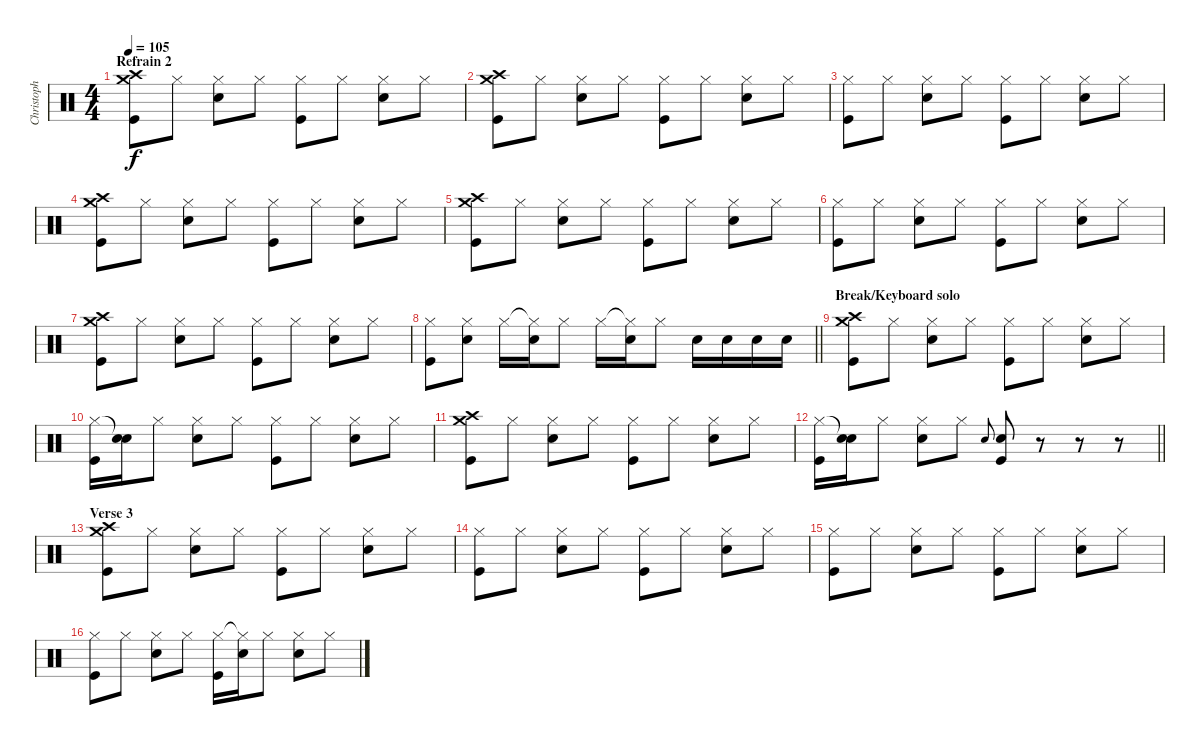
\track ("Christoph Schneider" "Christoph ") {instrument percussion}
\staff {score}
\articulation defaults
\ts (4 4)
\section ("" "Refrain 2")
\tempo 105
\clef neutral
\ks c
("Crash medium (hit)" "Crash high (hit)" "Kick (hit)").8{dy f} "Hi-Hat (closed)".8 ("Hi-Hat (closed)" "Snare (hit) 2").8 "Hi-Hat (closed)".8 ("Hi-Hat (closed)" "Kick (hit)").8 "Hi-Hat (closed)".8 ("Hi-Hat (closed)" "Snare (hit) 2").8 "Hi-Hat (closed)".8 |
("Crash medium (hit)" "Crash high (hit)" "Kick (hit)").8 "Hi-Hat (closed)".8 ("Hi-Hat (closed)" "Snare (hit) 2").8 "Hi-Hat (closed)".8 ("Hi-Hat (closed)" "Kick (hit)").8 "Hi-Hat (closed)".8 ("Hi-Hat (closed)" "Snare (hit) 2").8 "Hi-Hat (closed)".8 |
("Hi-Hat (closed)" "Kick (hit)").8 "Hi-Hat (closed)".8 ("Hi-Hat (closed)" "Snare (hit) 2").8 "Hi-Hat (closed)".8 ("Hi-Hat (closed)" "Kick (hit)").8 "Hi-Hat (closed)".8 ("Hi-Hat (closed)" "Snare (hit) 2").8 "Hi-Hat (closed)".8 |
("Crash medium (hit)" "Crash high (hit)" "Kick (hit)").8 "Hi-Hat (closed)".8 ("Hi-Hat (closed)" "Snare (hit) 2").8 "Hi-Hat (closed)".8 ("Hi-Hat (closed)" "Kick (hit)").8 "Hi-Hat (closed)".8 ("Hi-Hat (closed)" "Snare (hit) 2").8 "Hi-Hat (closed)".8 |
("Crash medium (hit)" "Crash high (hit)" "Kick (hit)").8 "Hi-Hat (closed)".8 ("Hi-Hat (closed)" "Snare (hit) 2").8 "Hi-Hat (closed)".8 ("Hi-Hat (closed)" "Kick (hit)").8 "Hi-Hat (closed)".8 ("Hi-Hat (closed)" "Snare (hit) 2").8 "Hi-Hat (closed)".8 |
("Hi-Hat (closed)" "Kick (hit)").8 "Hi-Hat (closed)".8 ("Hi-Hat (closed)" "Snare (hit) 2").8 "Hi-Hat (closed)".8 ("Hi-Hat (closed)" "Kick (hit)").8 "Hi-Hat (closed)".8 ("Hi-Hat (closed)" "Snare (hit) 2").8 "Hi-Hat (closed)".8 |
("Crash medium (hit)" "Crash high (hit)" "Kick (hit)").8 "Hi-Hat (closed)".8 ("Hi-Hat (closed)" "Snare (hit) 2").8 "Hi-Hat (closed)".8 ("Hi-Hat (closed)" "Kick (hit)").8 "Hi-Hat (closed)".8 ("Hi-Hat (closed)" "Snare (hit) 2").8 "Hi-Hat (closed)".8 |
\barLineRight lightlight
("Hi-Hat (closed)" "Kick (hit)").8 ("Hi-Hat (closed)" "Snare (hit) 2").8 "Hi-Hat (closed)".16 ("Hi-Hat (closed)"{t} "Snare (hit) 2").16 "Hi-Hat (closed)".8 "Hi-Hat (closed)".16 ("Hi-Hat (closed)"{t} "Snare (hit) 2").16 "Hi-Hat (closed)".8 "Snare (hit) 2".16 "Snare (hit) 2".16 "Snare (hit) 2".16 "Snare (hit) 2".16 |
\section ("" "Break/Keyboard solo")
("Crash medium (hit)" "Crash high (hit)" "Kick (hit)").8 "Hi-Hat (closed)".8 ("Hi-Hat (closed)" "Snare (hit) 2").8 "Hi-Hat (closed)".8 ("Hi-Hat (closed)" "Kick (hit)").8 "Hi-Hat (closed)".8 ("Hi-Hat (closed)" "Snare (hit) 2").8 "Hi-Hat (closed)".8 |
("Hi-Hat (closed)" "Kick (hit)").16 ("Snare (hit)"{t} "Snare (hit) 2").16 "Hi-Hat (closed)".8 ("Hi-Hat (closed)" "Snare (hit) 2").8 "Hi-Hat (closed)".8 ("Hi-Hat (closed)" "Kick (hit)").8 "Hi-Hat (closed)".8 ("Hi-Hat (closed)" "Snare (hit) 2").8 "Hi-Hat (closed)".8 |
("Crash medium (hit)" "Crash high (hit)" "Kick (hit)").8 "Hi-Hat (closed)".8 ("Hi-Hat (closed)" "Snare (hit) 2").8 "Hi-Hat (closed)".8 ("Hi-Hat (closed)" "Kick (hit)").8 "Hi-Hat (closed)".8 ("Hi-Hat (closed)" "Snare (hit) 2").8 "Hi-Hat (closed)".8 |
\barLineRight lightlight
("Hi-Hat (closed)" "Kick (hit)").16 ("Snare (hit)"{t} "Snare (hit) 2").16 "Hi-Hat (closed)".8 ("Hi-Hat (closed)" "Snare (hit) 2").8 "Hi-Hat (closed)".8 "Snare (hit) 2".8{gr onbeat} ("Snare (hit) 2" "Kick (hit)").8 r.8 r.8 r.8 |
\section ("" "Verse 3")
("Crash medium (hit)" "Crash high (hit)" "Kick (hit)").8 "Hi-Hat (closed)".8 ("Hi-Hat (closed)" "Snare (hit) 2").8 "Hi-Hat (closed)".8 ("Hi-Hat (closed)" "Kick (hit)").8 "Hi-Hat (closed)".8 ("Hi-Hat (closed)" "Snare (hit) 2").8 "Hi-Hat (closed)".8 |
("Hi-Hat (closed)" "Kick (hit)").8 "Hi-Hat (closed)".8 ("Hi-Hat (closed)" "Snare (hit) 2").8 "Hi-Hat (closed)".8 ("Hi-Hat (closed)" "Kick (hit)").8 "Hi-Hat (closed)".8 ("Hi-Hat (closed)" "Snare (hit) 2").8 "Hi-Hat (closed)".8 |
("Hi-Hat (closed)" "Kick (hit)").8 "Hi-Hat (closed)".8 ("Hi-Hat (closed)" "Snare (hit) 2").8 "Hi-Hat (closed)".8 ("Hi-Hat (closed)" "Kick (hit)").8 "Hi-Hat (closed)".8 ("Hi-Hat (closed)" "Snare (hit) 2").8 "Hi-Hat (closed)".8 |
("Hi-Hat (closed)" "Kick (hit)").8 "Hi-Hat (closed)".8 ("Hi-Hat (closed)" "Snare (hit) 2").8 "Hi-Hat (closed)".8 ("Hi-Hat (closed)" "Kick (hit)").16 ("Hi-Hat (closed)"{t} "Snare (hit) 2").16 "Hi-Hat (closed)".8 ("Hi-Hat (closed)" "Snare (hit) 2").8 "Hi-Hat (closed)".8
